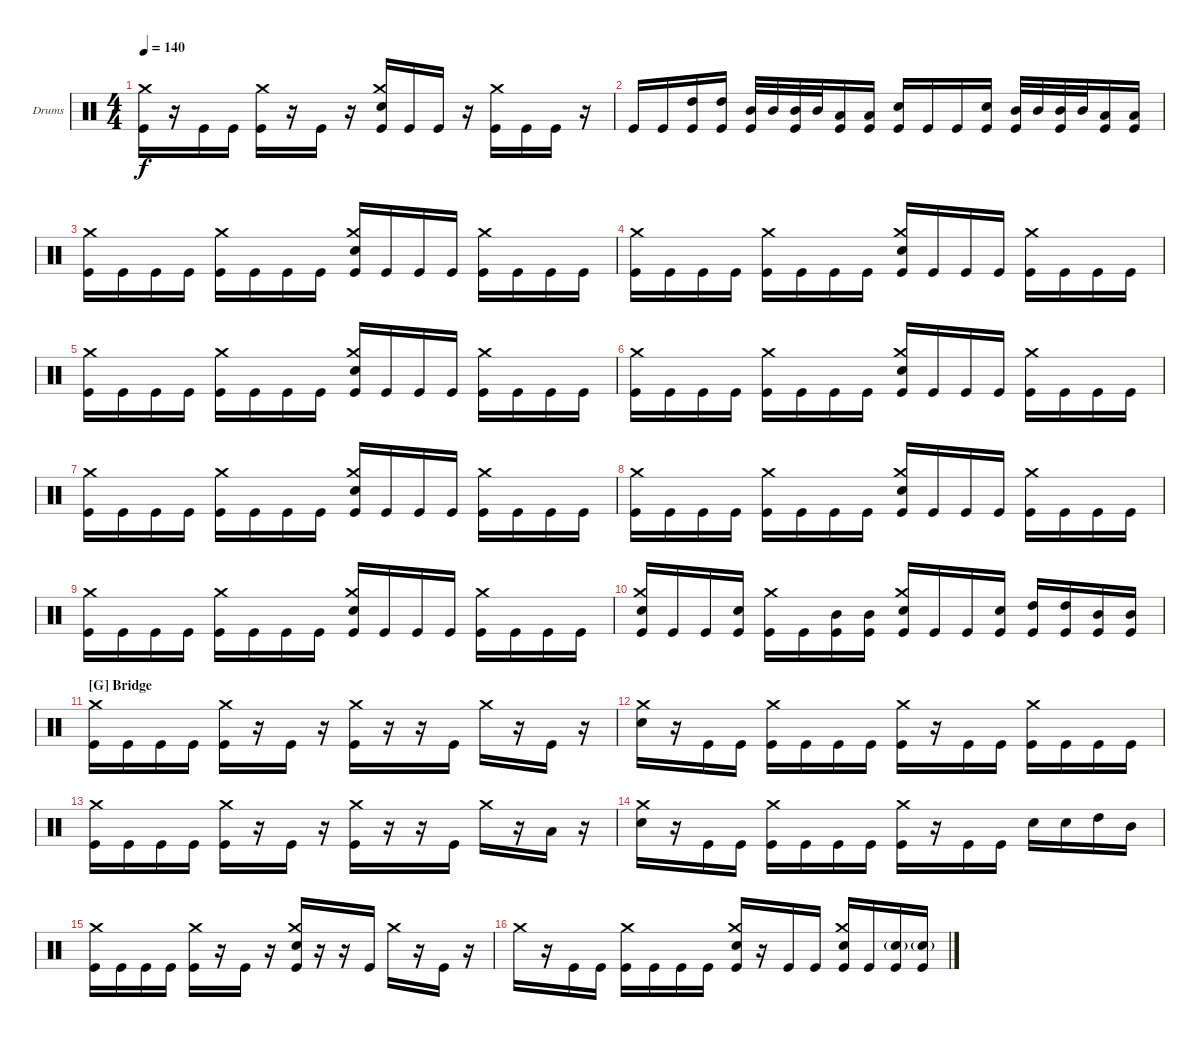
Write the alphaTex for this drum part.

\bracketExtendMode groupsimilarinstruments
\firstSystemTrackNameOrientation horizontal
\otherSystemsTrackNameOrientation horizontal
\track ("Drumkit" "Drums") {instrument percussion}
\staff {score}
\articulation defaults
\ts (4 4)
\tempo 140
\clef neutral
\ks c
("Kick (hit)" "Crash medium (hit)").16{dy f} r.16 "Kick (hit)".16 "Kick (hit)".16 ("Kick (hit)" "Crash medium (hit)").16 r.16 "Kick (hit)".16 r.16 ("Kick (hit)" "Snare (hit) 2" "Crash medium (hit)").16 "Kick (hit)".16 "Kick (hit)".16 r.16 ("Kick (hit)" "Crash medium (hit)").16 "Kick (hit)".16 "Kick (hit)".16 r.16 |
"Kick (hit)".16 "Kick (hit)".16 ("High Tom (hit)" "Kick (hit)").16 ("High Tom (hit)" "Kick (hit)").16 ("Mid Tom (hit)" "Kick (hit)").32 "Mid Tom (hit)".32 ("Mid Tom (hit)" "Kick (hit)").32 "Mid Tom (hit)".32 ("Low Tom (hit)" "Kick (hit)").16 ("Low Tom (hit)" "Kick (hit)").16 ("Snare (hit) 2" "Kick (hit)").16 "Kick (hit)".16 "Kick (hit)".16 ("Snare (hit) 2" "Kick (hit)").16 ("Kick (hit)" "Mid Tom (hit)").32 "Mid Tom (hit)".32 ("Kick (hit)" "Mid Tom (hit)").32 "Mid Tom (hit)".32 ("Kick (hit)" "Low Tom (hit)").16 ("Kick (hit)" "Low Tom (hit)").16 |
("Kick (hit)" "Crash medium (hit)").16 "Kick (hit)".16 "Kick (hit)".16 "Kick (hit)".16 ("Kick (hit)" "Crash medium (hit)").16 "Kick (hit)".16 "Kick (hit)".16 "Kick (hit)".16 ("Kick (hit)" "Snare (hit) 2" "Crash medium (hit)").16 "Kick (hit)".16 "Kick (hit)".16 "Kick (hit)".16 ("Kick (hit)" "Crash medium (hit)").16 "Kick (hit)".16 "Kick (hit)".16 "Kick (hit)".16 |
("Kick (hit)" "Crash medium (hit)").16 "Kick (hit)".16 "Kick (hit)".16 "Kick (hit)".16 ("Kick (hit)" "Crash medium (hit)").16 "Kick (hit)".16 "Kick (hit)".16 "Kick (hit)".16 ("Kick (hit)" "Snare (hit) 2" "Crash medium (hit)").16 "Kick (hit)".16 "Kick (hit)".16 "Kick (hit)".16 ("Kick (hit)" "Crash medium (hit)").16 "Kick (hit)".16 "Kick (hit)".16 "Kick (hit)".16 |
("Kick (hit)" "Crash medium (hit)").16 "Kick (hit)".16 "Kick (hit)".16 "Kick (hit)".16 ("Kick (hit)" "Crash medium (hit)").16 "Kick (hit)".16 "Kick (hit)".16 "Kick (hit)".16 ("Kick (hit)" "Snare (hit) 2" "Crash medium (hit)").16 "Kick (hit)".16 "Kick (hit)".16 "Kick (hit)".16 ("Kick (hit)" "Crash medium (hit)").16 "Kick (hit)".16 "Kick (hit)".16 "Kick (hit)".16 |
("Kick (hit)" "Crash medium (hit)").16 "Kick (hit)".16 "Kick (hit)".16 "Kick (hit)".16 ("Kick (hit)" "Crash medium (hit)").16 "Kick (hit)".16 "Kick (hit)".16 "Kick (hit)".16 ("Kick (hit)" "Snare (hit) 2" "Crash medium (hit)").16 "Kick (hit)".16 "Kick (hit)".16 "Kick (hit)".16 ("Kick (hit)" "Crash medium (hit)").16 "Kick (hit)".16 "Kick (hit)".16 "Kick (hit)".16 |
("Kick (hit)" "Crash medium (hit)").16 "Kick (hit)".16 "Kick (hit)".16 "Kick (hit)".16 ("Kick (hit)" "Crash medium (hit)").16 "Kick (hit)".16 "Kick (hit)".16 "Kick (hit)".16 ("Kick (hit)" "Snare (hit) 2" "Crash medium (hit)").16 "Kick (hit)".16 "Kick (hit)".16 "Kick (hit)".16 ("Kick (hit)" "Crash medium (hit)").16 "Kick (hit)".16 "Kick (hit)".16 "Kick (hit)".16 |
("Kick (hit)" "Crash medium (hit)").16 "Kick (hit)".16 "Kick (hit)".16 "Kick (hit)".16 ("Kick (hit)" "Crash medium (hit)").16 "Kick (hit)".16 "Kick (hit)".16 "Kick (hit)".16 ("Kick (hit)" "Snare (hit) 2" "Crash medium (hit)").16 "Kick (hit)".16 "Kick (hit)".16 "Kick (hit)".16 ("Kick (hit)" "Crash medium (hit)").16 "Kick (hit)".16 "Kick (hit)".16 "Kick (hit)".16 |
("Kick (hit)" "Crash medium (hit)").16 "Kick (hit)".16 "Kick (hit)".16 "Kick (hit)".16 ("Kick (hit)" "Crash medium (hit)").16 "Kick (hit)".16 "Kick (hit)".16 "Kick (hit)".16 ("Kick (hit)" "Snare (hit) 2" "Crash medium (hit)").16 "Kick (hit)".16 "Kick (hit)".16 "Kick (hit)".16 ("Kick (hit)" "Crash medium (hit)").16 "Kick (hit)".16 "Kick (hit)".16 "Kick (hit)".16 |
("Kick (hit)" "Crash medium (hit)" "Snare (hit) 2").16 "Kick (hit)".16 "Kick (hit)".16 ("Kick (hit)" "Snare (hit) 2").16 ("Kick (hit)" "Crash medium (hit)").16 "Kick (hit)".16 ("Kick (hit)" "Mid Tom (hit)").16 ("Kick (hit)" "Mid Tom (hit)").16 ("Kick (hit)" "Snare (hit) 2" "Crash medium (hit)").16 "Kick (hit)".16 "Kick (hit)".16 ("Kick (hit)" "Snare (hit) 2").16 ("Kick (hit)" "High Tom (hit)").16 ("Kick (hit)" "High Tom (hit)").16 ("Kick (hit)" "Mid Tom (hit)").16 ("Kick (hit)" "Mid Tom (hit)").16 |
\section ("G" "Bridge")
("Kick (hit)" "Crash medium (hit)").16 "Kick (hit)".16 "Kick (hit)".16 "Kick (hit)".16 ("Kick (hit)" "Crash medium (hit)").16 r.16 "Kick (hit)".16 r.16 ("Kick (hit)" "Crash medium (hit)").16 r.16 r.16 "Kick (hit)".16 "Crash medium (hit)".16 r.16 "Kick (hit)".16 r.16 |
("Snare (hit) 2" "Crash medium (hit)").16 r.16 "Kick (hit)".16 "Kick (hit)".16 ("Crash medium (hit)" "Kick (hit)").16 "Kick (hit)".16 "Kick (hit)".16 "Kick (hit)".16 ("Crash medium (hit)" "Kick (hit)").16 r.16 "Kick (hit)".16 "Kick (hit)".16 ("Crash medium (hit)" "Kick (hit)").16 "Kick (hit)".16 "Kick (hit)".16 "Kick (hit)".16 |
("Kick (hit)" "Crash medium (hit)").16 "Kick (hit)".16 "Kick (hit)".16 "Kick (hit)".16 ("Kick (hit)" "Crash medium (hit)").16 r.16 "Kick (hit)".16 r.16 ("Kick (hit)" "Crash medium (hit)").16 r.16 r.16 "Kick (hit)".16 "Crash medium (hit)".16 r.16 "Low Tom (hit)".16 r.16 |
("Snare (hit) 2" "Crash medium (hit)").16 r.16 "Kick (hit)".16 "Kick (hit)".16 ("Crash medium (hit)" "Kick (hit)").16 "Kick (hit)".16 "Kick (hit)".16 "Kick (hit)".16 ("Crash medium (hit)" "Kick (hit)").16 r.16 "Kick (hit)".16 "Kick (hit)".16 "Snare (hit) 2".16 "Snare (hit) 2".16 "High Tom (hit)".16 "Mid Tom (hit)".16 |
("Kick (hit)" "Crash medium (hit)").16 "Kick (hit)".16 "Kick (hit)".16 "Kick (hit)".16 ("Kick (hit)" "Crash medium (hit)").16 r.16 "Kick (hit)".16 r.16 ("Kick (hit)" "Crash medium (hit)" "Snare (hit) 2").16 r.16 r.16 "Kick (hit)".16 "Crash medium (hit)".16 r.16 "Kick (hit)".16 r.16 |
"Crash medium (hit)".16 r.16 "Kick (hit)".16 "Kick (hit)".16 ("Crash medium (hit)" "Kick (hit)").16 "Kick (hit)".16 "Kick (hit)".16 "Kick (hit)".16 ("Crash medium (hit)" "Kick (hit)" "Snare (hit) 2").16 r.16 "Kick (hit)".16 "Kick (hit)".16 ("Crash medium (hit)" "Kick (hit)" "Snare (hit) 2").16 "Kick (hit)".16 ("Kick (hit)" "Snare (hit) 2"{g}).16 ("Kick (hit)" "Snare (hit) 2"{g}).16
